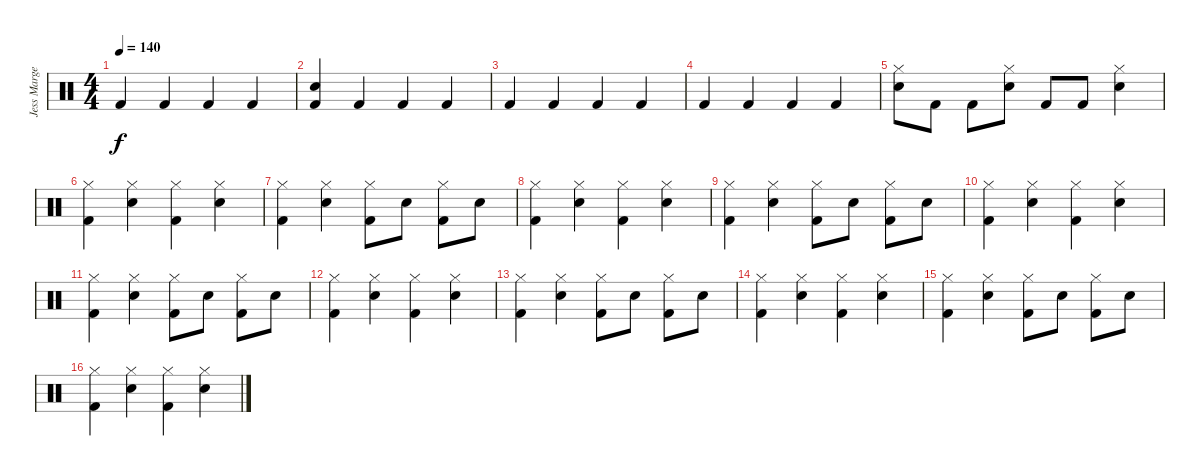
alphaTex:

\track ("Jess Margera" "Jess Marge") {instrument percussion}
\staff {score}
\articulation defaults
\ts (4 4)
\tempo 140
\clef neutral
\ks c "Kick (hit) 2".4{dy f} "Kick (hit) 2".4 "Kick (hit) 2".4 "Kick (hit) 2".4
|
("Electric Snare (hit)" "Kick (hit) 2").4 "Kick (hit) 2".4 "Kick (hit) 2".4 "Kick (hit) 2".4 |
"Kick (hit) 2".4 "Kick (hit) 2".4 "Kick (hit) 2".4 "Kick (hit) 2".4 |
"Kick (hit) 2".4 "Kick (hit) 2".4 "Kick (hit) 2".4 "Kick (hit) 2".4 |
("Hi-Hat (closed)" "Electric Snare (hit)").8 "Kick (hit) 2".8 "Kick (hit) 2".8 ("Hi-Hat (closed)" "Electric Snare (hit)").8 "Kick (hit) 2".8 "Kick (hit) 2".8 ("Hi-Hat (closed)" "Electric Snare (hit)").4 |
("Hi-Hat (closed)" "Kick (hit) 2").4 ("Hi-Hat (closed)" "Electric Snare (hit)").4 ("Hi-Hat (closed)" "Kick (hit) 2").4 ("Hi-Hat (closed)" "Electric Snare (hit)").4 |
("Hi-Hat (closed)" "Kick (hit) 2").4 ("Hi-Hat (closed)" "Electric Snare (hit)").4 ("Hi-Hat (closed)" "Kick (hit) 2").8 "Electric Snare (hit)".8 ("Hi-Hat (closed)" "Kick (hit) 2").8 "Electric Snare (hit)".8 |
("Hi-Hat (closed)" "Kick (hit) 2").4 ("Hi-Hat (closed)" "Electric Snare (hit)").4 ("Hi-Hat (closed)" "Kick (hit) 2").4 ("Hi-Hat (closed)" "Electric Snare (hit)").4 |
("Hi-Hat (closed)" "Kick (hit) 2").4 ("Hi-Hat (closed)" "Electric Snare (hit)").4 ("Hi-Hat (closed)" "Kick (hit) 2").8 "Electric Snare (hit)".8 ("Hi-Hat (closed)" "Kick (hit) 2").8 "Electric Snare (hit)".8 |
("Hi-Hat (closed)" "Kick (hit) 2").4 ("Hi-Hat (closed)" "Electric Snare (hit)").4 ("Hi-Hat (closed)" "Kick (hit) 2").4 ("Hi-Hat (closed)" "Electric Snare (hit)").4 |
("Hi-Hat (closed)" "Kick (hit) 2").4 ("Hi-Hat (closed)" "Electric Snare (hit)").4 ("Hi-Hat (closed)" "Kick (hit) 2").8 "Electric Snare (hit)".8 ("Hi-Hat (closed)" "Kick (hit) 2").8 "Electric Snare (hit)".8 |
("Hi-Hat (closed)" "Kick (hit) 2").4 ("Hi-Hat (closed)" "Electric Snare (hit)").4 ("Hi-Hat (closed)" "Kick (hit) 2").4 ("Hi-Hat (closed)" "Electric Snare (hit)").4 |
("Hi-Hat (closed)" "Kick (hit) 2").4 ("Hi-Hat (closed)" "Electric Snare (hit)").4 ("Hi-Hat (closed)" "Kick (hit) 2").8 "Electric Snare (hit)".8 ("Hi-Hat (closed)" "Kick (hit) 2").8 "Electric Snare (hit)".8 |
("Hi-Hat (closed)" "Kick (hit) 2").4 ("Hi-Hat (closed)" "Electric Snare (hit)").4 ("Hi-Hat (closed)" "Kick (hit) 2").4 ("Hi-Hat (closed)" "Electric Snare (hit)").4 |
("Hi-Hat (closed)" "Kick (hit) 2").4 ("Hi-Hat (closed)" "Electric Snare (hit)").4 ("Hi-Hat (closed)" "Kick (hit) 2").8 "Electric Snare (hit)".8 ("Hi-Hat (closed)" "Kick (hit) 2").8 "Electric Snare (hit)".8 |
("Hi-Hat (closed)" "Kick (hit) 2").4 ("Hi-Hat (closed)" "Electric Snare (hit)").4 ("Hi-Hat (closed)" "Kick (hit) 2").4 ("Hi-Hat (closed)" "Electric Snare (hit)").4
